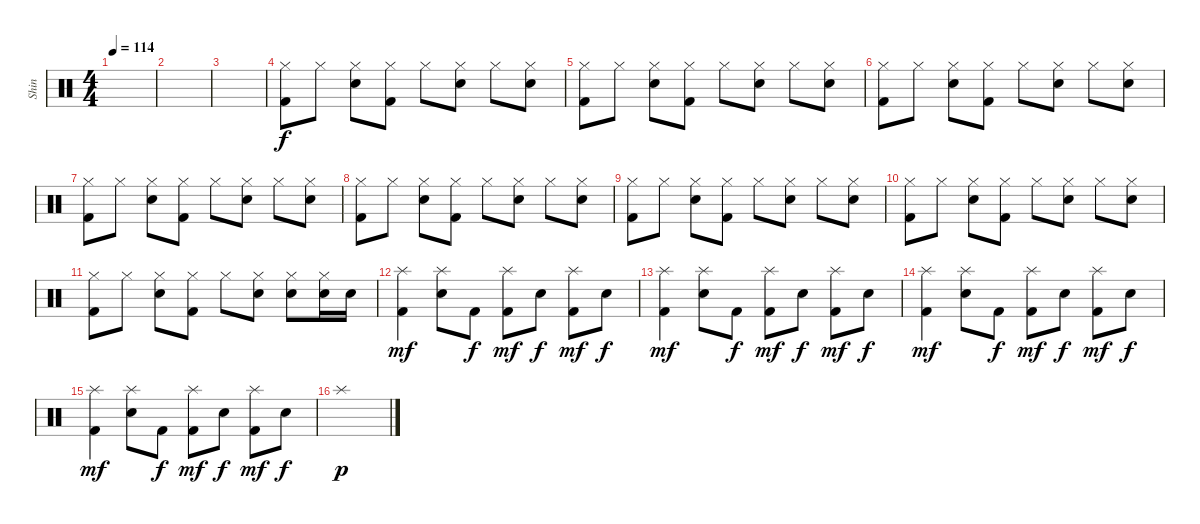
\track ("Shin" "Shin") {instrument percussion}
\staff {score}
\articulation defaults
\ts (4 4)
\tempo 114
\clef neutral
\ks c
|
|
|
("Hi-Hat (closed)" "Kick (hit) 2").8{dy f} "Hi-Hat (closed)".8 ("Hi-Hat (closed)" "Electric Snare (hit)").8 ("Hi-Hat (closed)" "Kick (hit) 2").8 "Hi-Hat (closed)".8 ("Hi-Hat (closed)" "Electric Snare (hit)").8 "Hi-Hat (closed)".8 ("Hi-Hat (closed)" "Electric Snare (hit)").8 |
("Hi-Hat (closed)" "Kick (hit) 2").8 "Hi-Hat (closed)".8 ("Hi-Hat (closed)" "Electric Snare (hit)").8 ("Hi-Hat (closed)" "Kick (hit) 2").8 "Hi-Hat (closed)".8 ("Hi-Hat (closed)" "Electric Snare (hit)").8 "Hi-Hat (closed)".8 ("Hi-Hat (closed)" "Electric Snare (hit)").8 |
("Hi-Hat (closed)" "Kick (hit) 2").8 "Hi-Hat (closed)".8 ("Hi-Hat (closed)" "Electric Snare (hit)").8 ("Hi-Hat (closed)" "Kick (hit) 2").8 "Hi-Hat (closed)".8 ("Hi-Hat (closed)" "Electric Snare (hit)").8 "Hi-Hat (closed)".8 ("Hi-Hat (closed)" "Electric Snare (hit)").8 |
("Hi-Hat (closed)" "Kick (hit) 2").8 "Hi-Hat (closed)".8 ("Hi-Hat (closed)" "Electric Snare (hit)").8 ("Hi-Hat (closed)" "Kick (hit) 2").8 "Hi-Hat (closed)".8 ("Hi-Hat (closed)" "Electric Snare (hit)").8 "Hi-Hat (closed)".8 ("Hi-Hat (closed)" "Electric Snare (hit)").8 |
("Hi-Hat (closed)" "Kick (hit) 2").8 "Hi-Hat (closed)".8 ("Hi-Hat (closed)" "Electric Snare (hit)").8 ("Hi-Hat (closed)" "Kick (hit) 2").8 "Hi-Hat (closed)".8 ("Hi-Hat (closed)" "Electric Snare (hit)").8 "Hi-Hat (closed)".8 ("Hi-Hat (closed)" "Electric Snare (hit)").8 |
("Hi-Hat (closed)" "Kick (hit) 2").8 "Hi-Hat (closed)".8 ("Hi-Hat (closed)" "Electric Snare (hit)").8 ("Hi-Hat (closed)" "Kick (hit) 2").8 "Hi-Hat (closed)".8 ("Hi-Hat (closed)" "Electric Snare (hit)").8 "Hi-Hat (closed)".8 ("Hi-Hat (closed)" "Electric Snare (hit)").8 |
("Hi-Hat (closed)" "Kick (hit) 2").8 "Hi-Hat (closed)".8 ("Hi-Hat (closed)" "Electric Snare (hit)").8 ("Hi-Hat (closed)" "Kick (hit) 2").8 "Hi-Hat (closed)".8 ("Hi-Hat (closed)" "Electric Snare (hit)").8 "Hi-Hat (closed)".8 ("Hi-Hat (closed)" "Electric Snare (hit)").8 |
("Hi-Hat (closed)" "Kick (hit) 2").8 "Hi-Hat (closed)".8 ("Hi-Hat (closed)" "Electric Snare (hit)").8 ("Hi-Hat (closed)" "Kick (hit) 2").8 "Hi-Hat (closed)".8 ("Hi-Hat (closed)" "Electric Snare (hit)").8 ("Hi-Hat (closed)" "Electric Snare (hit)").8 ("Hi-Hat (closed)" "Electric Snare (hit)").16 "Electric Snare (hit)".16 |
("Splash (hit)" "Kick (hit) 2").4{dy mf} ("Splash (hit)" "Electric Snare (hit)").8 "Kick (hit) 2".8{dy f} ("Splash (hit)" "Kick (hit) 2").8{dy mf} "Electric Snare (hit)".8{dy f} ("Splash (hit)" "Kick (hit) 2").8{dy mf} "Electric Snare (hit)".8{dy f} |
("Splash (hit)" "Kick (hit) 2").4{dy mf} ("Splash (hit)" "Electric Snare (hit)").8 "Kick (hit) 2".8{dy f} ("Splash (hit)" "Kick (hit) 2").8{dy mf} "Electric Snare (hit)".8{dy f} ("Splash (hit)" "Kick (hit) 2").8{dy mf} "Electric Snare (hit)".8{dy f} |
("Splash (hit)" "Kick (hit) 2").4{dy mf} ("Splash (hit)" "Electric Snare (hit)").8 "Kick (hit) 2".8{dy f} ("Splash (hit)" "Kick (hit) 2").8{dy mf} "Electric Snare (hit)".8{dy f} ("Splash (hit)" "Kick (hit) 2").8{dy mf} "Electric Snare (hit)".8{dy f} |
("Splash (hit)" "Kick (hit) 2").4{dy mf} ("Splash (hit)" "Electric Snare (hit)").8 "Kick (hit) 2".8{dy f} ("Splash (hit)" "Kick (hit) 2").8{dy mf} "Electric Snare (hit)".8{dy f} ("Splash (hit)" "Kick (hit) 2").8{dy mf} "Electric Snare (hit)".8{dy f} |
"Splash (hit)".1{dy p}
